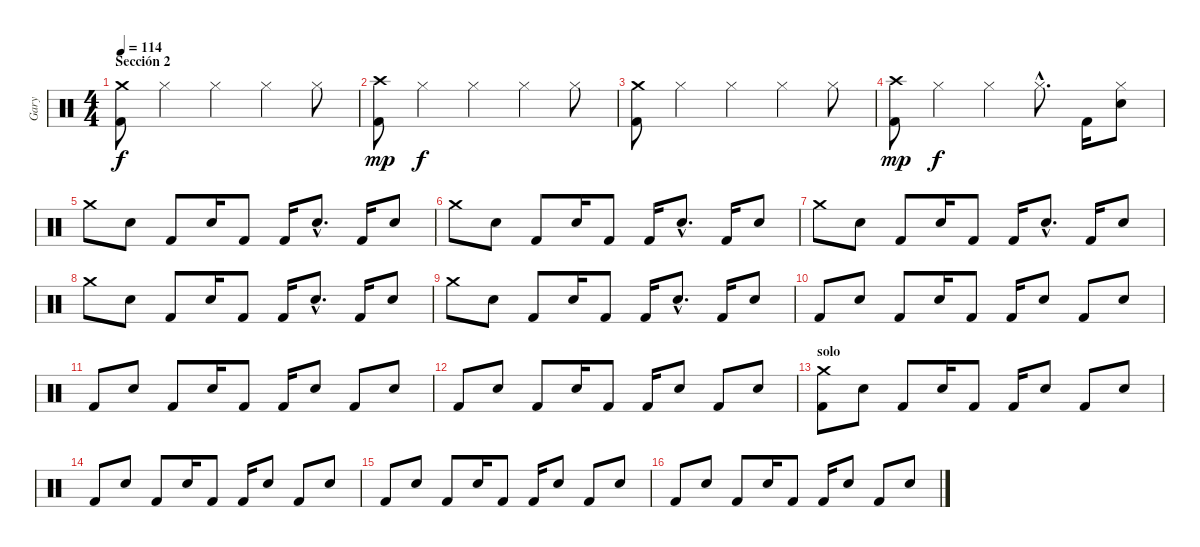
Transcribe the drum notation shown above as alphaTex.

\track ("Gary" "Gary") {instrument percussion}
\staff {score}
\articulation defaults
\ts (4 4)
\section ("" "Sección 2")
\tempo 114
\clef neutral
\ks c
("Crash medium (hit)" "Kick (hit) 2").8{dy f} "Hi-Hat (closed)".4 "Hi-Hat (closed)".4 "Hi-Hat (closed)".4 "Hi-Hat (closed)".8 |
("Crash high (hit)" "Kick (hit) 2").8{dy mp} "Hi-Hat (closed)".4{dy f} "Hi-Hat (closed)".4 "Hi-Hat (closed)".4 "Hi-Hat (closed)".8 |
("Crash medium (hit)" "Kick (hit) 2").8 "Hi-Hat (closed)".4 "Hi-Hat (closed)".4 "Hi-Hat (closed)".4 "Hi-Hat (closed)".8 |
("Crash high (hit)" "Kick (hit) 2").8{dy mp} "Hi-Hat (closed)".4{dy f} "Hi-Hat (closed)".4 "Hi-Hat (closed)"{hac}.8{d} "Kick (hit) 2".16 ("Hi-Hat (closed)" "Snare (hit) 2").8 |
"Crash medium (hit)".8 "Snare (hit) 2".8 "Kick (hit) 2".8 "Snare (hit) 2".16 "Kick (hit) 2".8 "Kick (hit) 2".16 "Snare (hit) 2"{hac}.8{d} "Kick (hit) 2".16 "Snare (hit) 2".8 |
"Crash medium (hit)".8 "Snare (hit) 2".8 "Kick (hit) 2".8 "Snare (hit) 2".16 "Kick (hit) 2".8 "Kick (hit) 2".16 "Snare (hit) 2"{hac}.8{d} "Kick (hit) 2".16 "Snare (hit) 2".8 |
"Crash medium (hit)".8 "Snare (hit) 2".8 "Kick (hit) 2".8 "Snare (hit) 2".16 "Kick (hit) 2".8 "Kick (hit) 2".16 "Snare (hit) 2"{hac}.8{d} "Kick (hit) 2".16 "Snare (hit) 2".8 |
"Crash medium (hit)".8 "Snare (hit) 2".8 "Kick (hit) 2".8 "Snare (hit) 2".16 "Kick (hit) 2".8 "Kick (hit) 2".16 "Snare (hit) 2"{hac}.8{d} "Kick (hit) 2".16 "Snare (hit) 2".8 |
"Crash medium (hit)".8 "Snare (hit) 2".8 "Kick (hit) 2".8 "Snare (hit) 2".16 "Kick (hit) 2".8 "Kick (hit) 2".16 "Snare (hit) 2"{hac}.8{d} "Kick (hit) 2".16 "Snare (hit) 2".8 |
"Kick (hit) 2".8 "Snare (hit) 2".8 "Kick (hit) 2".8 "Snare (hit) 2".16 "Kick (hit) 2".8 "Kick (hit) 2".16 "Snare (hit) 2".8 "Kick (hit) 2".8 "Snare (hit) 2".8 |
"Kick (hit) 2".8 "Snare (hit) 2".8 "Kick (hit) 2".8 "Snare (hit) 2".16 "Kick (hit) 2".8 "Kick (hit) 2".16 "Snare (hit) 2".8 "Kick (hit) 2".8 "Snare (hit) 2".8 |
"Kick (hit) 2".8 "Snare (hit) 2".8 "Kick (hit) 2".8 "Snare (hit) 2".16 "Kick (hit) 2".8 "Kick (hit) 2".16 "Snare (hit) 2".8 "Kick (hit) 2".8 "Snare (hit) 2".8 |
\section ("" "solo")
("Crash medium (hit)" "Kick (hit) 2").8 "Snare (hit) 2".8 "Kick (hit) 2".8 "Snare (hit) 2".16 "Kick (hit) 2".8 "Kick (hit) 2".16 "Snare (hit) 2".8 "Kick (hit) 2".8 "Snare (hit) 2".8 |
"Kick (hit) 2".8 "Snare (hit) 2".8 "Kick (hit) 2".8 "Snare (hit) 2".16 "Kick (hit) 2".8 "Kick (hit) 2".16 "Snare (hit) 2".8 "Kick (hit) 2".8 "Snare (hit) 2".8 |
"Kick (hit) 2".8 "Snare (hit) 2".8 "Kick (hit) 2".8 "Snare (hit) 2".16 "Kick (hit) 2".8 "Kick (hit) 2".16 "Snare (hit) 2".8 "Kick (hit) 2".8 "Snare (hit) 2".8 |
"Kick (hit) 2".8 "Snare (hit) 2".8 "Kick (hit) 2".8 "Snare (hit) 2".16 "Kick (hit) 2".8 "Kick (hit) 2".16 "Snare (hit) 2".8 "Kick (hit) 2".8 "Snare (hit) 2".8
